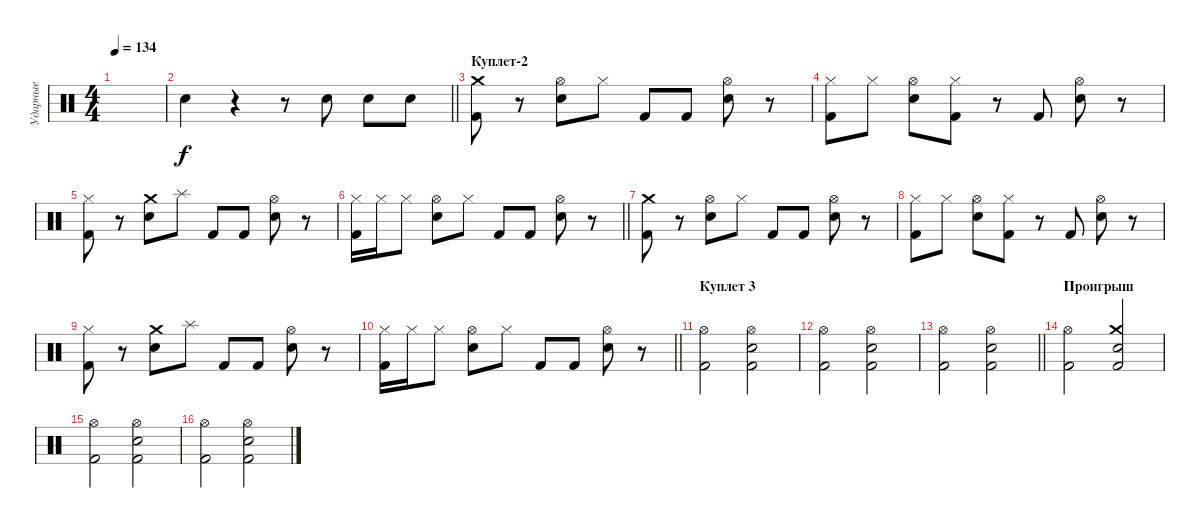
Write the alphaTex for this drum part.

\track ("Ударные" "Ударные") {instrument percussion}
\staff {score}
\articulation defaults
\ts (4 4)
\tempo 134
\clef neutral
\ks c
|
\barLineRight lightlight "Snare (hit) 2".4
r.4 r.8 "Snare (hit) 2".8 "Snare (hit) 2".8 "Snare (hit) 2".8 |
\section ("" "Куплет-2")
("Crash medium (hit)" "Kick (hit) 2").8 r.8 ("Hi-Hat (open)" "Snare (hit) 2").8 "Hi-Hat (closed)".8 "Kick (hit) 2".8 "Kick (hit) 2".8 ("Hi-Hat (open)" "Snare (hit) 2").8 r.8 |
("Hi-Hat (closed)" "Kick (hit) 2").8 "Hi-Hat (closed)".8 ("Hi-Hat (open)" "Snare (hit) 2").8 ("Hi-Hat (closed)" "Kick (hit) 2").8 r.8 "Kick (hit) 2".8 ("Hi-Hat (open)" "Snare (hit) 2").8 r.8 |
("Hi-Hat (closed)" "Kick (hit) 2").8 r.8 ("Crash medium (hit)" "Snare (hit) 2").8 "Splash (hit)".8 "Kick (hit) 2".8 "Kick (hit) 2".8 ("Hi-Hat (open)" "Snare (hit) 2").8 r.8 |
\barLineRight lightlight
("Hi-Hat (closed)" "Kick (hit) 2").16 "Hi-Hat (closed)".16 "Hi-Hat (closed)".8 ("Hi-Hat (open)" "Snare (hit) 2").8 "Hi-Hat (closed)".8 "Kick (hit) 2".8 "Kick (hit) 2".8 ("Hi-Hat (open)" "Snare (hit) 2").8 r.8 |
("Crash medium (hit)" "Kick (hit) 2").8 r.8 ("Hi-Hat (open)" "Snare (hit) 2").8 "Hi-Hat (closed)".8 "Kick (hit) 2".8 "Kick (hit) 2".8 ("Hi-Hat (open)" "Snare (hit) 2").8 r.8 |
("Hi-Hat (closed)" "Kick (hit) 2").8 "Hi-Hat (closed)".8 ("Hi-Hat (open)" "Snare (hit) 2").8 ("Hi-Hat (closed)" "Kick (hit) 2").8 r.8 "Kick (hit) 2".8 ("Hi-Hat (open)" "Snare (hit) 2").8 r.8 |
("Hi-Hat (closed)" "Kick (hit) 2").8 r.8 ("Crash medium (hit)" "Snare (hit) 2").8 "Splash (hit)".8 "Kick (hit) 2".8 "Kick (hit) 2".8 ("Hi-Hat (open)" "Snare (hit) 2").8 r.8 |
\barLineRight lightlight
("Hi-Hat (closed)" "Kick (hit) 2").16 "Hi-Hat (closed)".16 "Hi-Hat (closed)".8 ("Hi-Hat (open)" "Snare (hit) 2").8 "Hi-Hat (closed)".8 "Kick (hit) 2".8 "Kick (hit) 2".8 ("Hi-Hat (open)" "Snare (hit) 2").8 r.8 |
\section ("" "Куплет 3")
("Hi-Hat (open)" "Kick (hit) 2").2 ("Hi-Hat (open)" "Snare (hit) 2" "Kick (hit) 2").2 |
("Hi-Hat (open)" "Kick (hit) 2").2 ("Hi-Hat (open)" "Snare (hit) 2" "Kick (hit) 2").2 |
\barLineRight lightlight
("Hi-Hat (open)" "Kick (hit) 2").2 ("Hi-Hat (open)" "Snare (hit) 2" "Kick (hit) 2").2 |
\section ("" "Проигрыш")
("Hi-Hat (open)" "Kick (hit) 2").2 ("Crash medium (hit)" "Snare (hit) 2" "Kick (hit) 2").2 |
("Hi-Hat (open)" "Kick (hit) 2").2 ("Hi-Hat (open)" "Snare (hit) 2" "Kick (hit) 2").2 |
("Hi-Hat (open)" "Kick (hit) 2").2 ("Hi-Hat (open)" "Snare (hit) 2" "Kick (hit) 2").2
